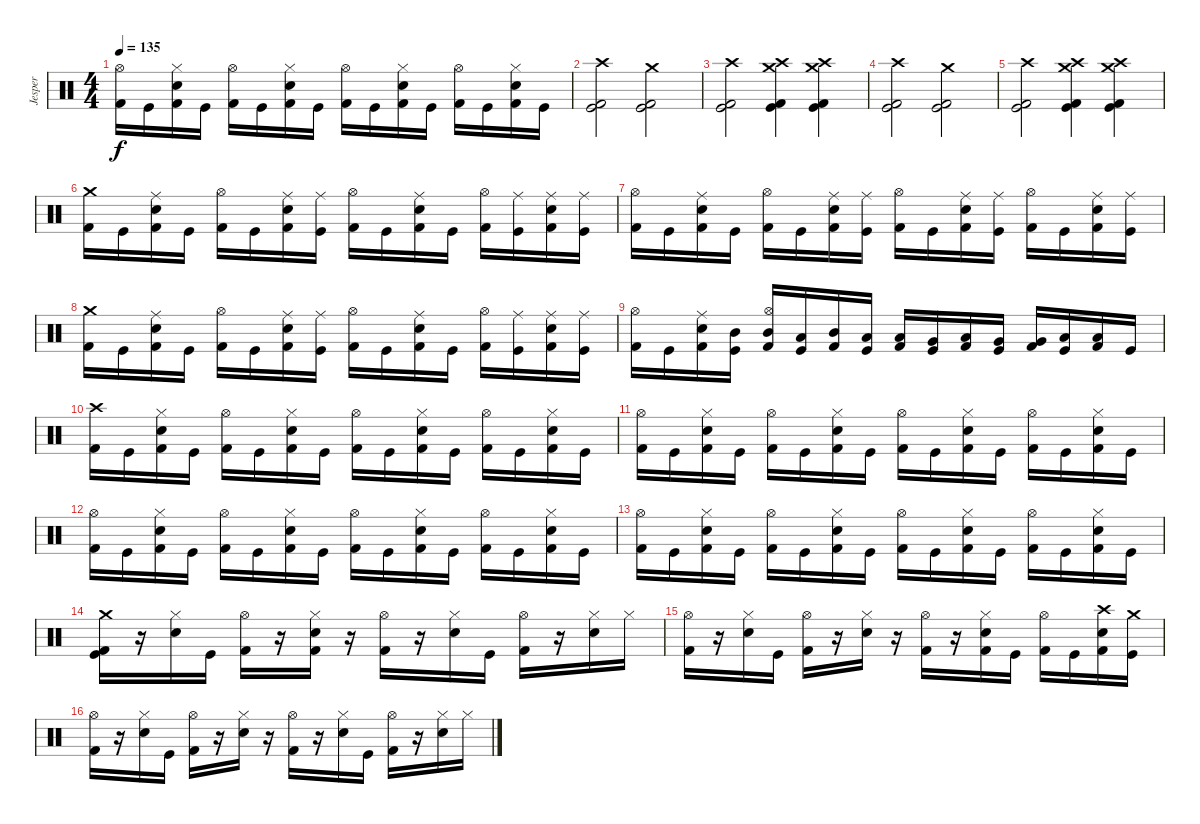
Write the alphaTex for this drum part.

\track ("Jesper" "Jesper") {instrument percussion}
\staff {score}
\articulation defaults
\ts (4 4)
\tempo 135
\clef neutral
\ks c
("Kick (hit) 2" "Hi-Hat (open)").16{dy f} "Kick (hit)".16 ("Kick (hit) 2" "Snare (hit) 2" "Hi-Hat (closed)").16 "Kick (hit)".16 ("Kick (hit) 2" "Hi-Hat (open)").16 "Kick (hit)".16 ("Kick (hit) 2" "Snare (hit) 2" "Hi-Hat (closed)").16 "Kick (hit)".16 ("Kick (hit) 2" "Hi-Hat (open)").16 "Kick (hit)".16 ("Kick (hit) 2" "Snare (hit) 2" "Hi-Hat (closed)").16 "Kick (hit)".16 ("Kick (hit) 2" "Hi-Hat (open)").16 "Kick (hit)".16 ("Kick (hit) 2" "Snare (hit) 2" "Hi-Hat (closed)").16 "Kick (hit)".16 |
("Kick (hit) 2" "Kick (hit)" "Crash high (hit)").2 ("Kick (hit) 2" "Kick (hit)" "Crash medium (hit)").2 |
("Kick (hit) 2" "Kick (hit)" "Crash high (hit)").2 ("Kick (hit) 2" "Kick (hit)" "Crash medium (hit)" "Crash high (hit)").4 ("Kick (hit) 2" "Kick (hit)" "Crash medium (hit)" "Crash high (hit)").4 |
("Kick (hit) 2" "Kick (hit)" "Crash high (hit)").2 ("Kick (hit) 2" "Kick (hit)" "Crash medium (hit)").2 |
("Kick (hit) 2" "Kick (hit)" "Crash high (hit)").2 ("Kick (hit) 2" "Kick (hit)" "Crash medium (hit)" "Crash high (hit)").4 ("Kick (hit) 2" "Kick (hit)" "Crash medium (hit)" "Crash high (hit)").4 |
("Kick (hit) 2" "Crash medium (hit)").16 "Kick (hit)".16 ("Kick (hit) 2" "Snare (hit) 2" "Ride (middle)").16 "Kick (hit)".16 ("Kick (hit) 2" "Hi-Hat (open)").16 "Kick (hit)".16 ("Kick (hit) 2" "Snare (hit) 2" "Ride (middle)").16 ("Kick (hit)" "Ride (middle)").16 ("Kick (hit) 2" "Hi-Hat (open)").16 "Kick (hit)".16 ("Kick (hit) 2" "Snare (hit) 2" "Ride (middle)").16 "Kick (hit)".16 ("Kick (hit) 2" "Hi-Hat (open)").16 ("Kick (hit)" "Ride (middle)").16 ("Kick (hit) 2" "Snare (hit) 2" "Ride (middle)").16 ("Kick (hit)" "Ride (middle)").16 |
("Kick (hit) 2" "Hi-Hat (open)").16 "Kick (hit)".16 ("Kick (hit) 2" "Snare (hit) 2" "Ride (middle)").16 "Kick (hit)".16 ("Kick (hit) 2" "Hi-Hat (open)").16 "Kick (hit)".16 ("Kick (hit) 2" "Snare (hit) 2" "Ride (middle)").16 ("Kick (hit)" "Ride (middle)").16 ("Kick (hit) 2" "Hi-Hat (open)").16 "Kick (hit)".16 ("Kick (hit) 2" "Snare (hit) 2" "Ride (middle)").16 ("Kick (hit)" "Ride (middle)").16 ("Kick (hit) 2" "Hi-Hat (open)").16 "Kick (hit)".16 ("Kick (hit) 2" "Snare (hit) 2" "Ride (middle)").16 ("Kick (hit)" "Ride (middle)").16 |
("Kick (hit) 2" "Crash medium (hit)").16 "Kick (hit)".16 ("Kick (hit) 2" "Snare (hit) 2" "Ride (middle)").16 "Kick (hit)".16 ("Kick (hit) 2" "Hi-Hat (open)").16 "Kick (hit)".16 ("Kick (hit) 2" "Snare (hit) 2" "Ride (middle)").16 ("Kick (hit)" "Ride (middle)").16 ("Kick (hit) 2" "Hi-Hat (open)").16 "Kick (hit)".16 ("Kick (hit) 2" "Snare (hit) 2" "Ride (middle)").16 "Kick (hit)".16 ("Kick (hit) 2" "Hi-Hat (open)").16 ("Kick (hit)" "Ride (middle)").16 ("Kick (hit) 2" "Snare (hit) 2" "Ride (middle)").16 ("Kick (hit)" "Ride (middle)").16 |
("Kick (hit) 2" "Hi-Hat (open)").16 "Kick (hit)".16 ("Kick (hit) 2" "Snare (hit) 2" "Ride (middle)").16 ("Kick (hit)" "Mid Tom (hit)").16 ("Kick (hit) 2" "Mid Tom (hit)" "Hi-Hat (open)").16 ("Kick (hit)" "Low Tom (hit)").16 ("Kick (hit) 2" "Mid Tom (hit)").16 ("Kick (hit)" "Low Tom (hit)").16 ("Kick (hit) 2" "Low Tom (hit)").16 ("Kick (hit)" "Very Low Tom (hit)").16 ("Kick (hit) 2" "Low Tom (hit)").16 ("Kick (hit)" "Very Low Tom (hit)").16 ("Kick (hit) 2" "Very Low Tom (hit)").16 ("Kick (hit)" "Low Floor Tom (hit)").16 ("Kick (hit) 2" "Low Floor Tom (hit)").16 "Kick (hit)".16 |
("Kick (hit) 2" "Crash high (hit)").16 "Kick (hit)".16 ("Kick (hit) 2" "Snare (hit) 2" "Hi-Hat (closed)").16 "Kick (hit)".16 ("Kick (hit) 2" "Hi-Hat (open)").16 "Kick (hit)".16 ("Kick (hit) 2" "Snare (hit) 2" "Hi-Hat (closed)").16 "Kick (hit)".16 ("Kick (hit) 2" "Hi-Hat (open)").16 "Kick (hit)".16 ("Kick (hit) 2" "Snare (hit) 2" "Hi-Hat (closed)").16 "Kick (hit)".16 ("Kick (hit) 2" "Hi-Hat (open)").16 "Kick (hit)".16 ("Kick (hit) 2" "Snare (hit) 2" "Hi-Hat (closed)").16 "Kick (hit)".16 |
("Kick (hit) 2" "Hi-Hat (open)").16 "Kick (hit)".16 ("Kick (hit) 2" "Snare (hit) 2" "Hi-Hat (closed)").16 "Kick (hit)".16 ("Kick (hit) 2" "Hi-Hat (open)").16 "Kick (hit)".16 ("Kick (hit) 2" "Snare (hit) 2" "Hi-Hat (closed)").16 "Kick (hit)".16 ("Kick (hit) 2" "Hi-Hat (open)").16 "Kick (hit)".16 ("Kick (hit) 2" "Snare (hit) 2" "Hi-Hat (closed)").16 "Kick (hit)".16 ("Kick (hit) 2" "Hi-Hat (open)").16 "Kick (hit)".16 ("Kick (hit) 2" "Snare (hit) 2" "Hi-Hat (closed)").16 "Kick (hit)".16 |
("Kick (hit) 2" "Hi-Hat (open)").16 "Kick (hit)".16 ("Kick (hit) 2" "Snare (hit) 2" "Hi-Hat (closed)").16 "Kick (hit)".16 ("Kick (hit) 2" "Hi-Hat (open)").16 "Kick (hit)".16 ("Kick (hit) 2" "Snare (hit) 2" "Hi-Hat (closed)").16 "Kick (hit)".16 ("Kick (hit) 2" "Hi-Hat (open)").16 "Kick (hit)".16 ("Kick (hit) 2" "Snare (hit) 2" "Hi-Hat (closed)").16 "Kick (hit)".16 ("Kick (hit) 2" "Hi-Hat (open)").16 "Kick (hit)".16 ("Kick (hit) 2" "Snare (hit) 2" "Hi-Hat (closed)").16 "Kick (hit)".16 |
("Kick (hit) 2" "Hi-Hat (open)").16 "Kick (hit)".16 ("Kick (hit) 2" "Snare (hit) 2" "Hi-Hat (closed)").16 "Kick (hit)".16 ("Kick (hit) 2" "Hi-Hat (open)").16 "Kick (hit)".16 ("Kick (hit) 2" "Snare (hit) 2" "Hi-Hat (closed)").16 "Kick (hit)".16 ("Kick (hit) 2" "Hi-Hat (open)").16 "Kick (hit)".16 ("Kick (hit) 2" "Snare (hit) 2" "Hi-Hat (closed)").16 "Kick (hit)".16 ("Kick (hit) 2" "Hi-Hat (open)").16 "Kick (hit)".16 ("Kick (hit) 2" "Snare (hit) 2" "Hi-Hat (closed)").16 "Kick (hit)".16 |
("Kick (hit) 2" "Kick (hit)" "Crash medium (hit)").16 r.16 ("Snare (hit) 2" "Hi-Hat (closed)").16 "Kick (hit)".16 ("Kick (hit) 2" "Hi-Hat (open)").16 r.16 ("Kick (hit) 2" "Snare (hit) 2" "Hi-Hat (closed)").16 r.16 ("Kick (hit) 2" "Hi-Hat (open)").16 r.16 ("Snare (hit) 2" "Hi-Hat (closed)").16 "Kick (hit)".16 ("Kick (hit) 2" "Hi-Hat (open)").16 r.16 ("Snare (hit) 2" "Hi-Hat (closed)").16 "Hi-Hat (closed)".16 |
("Kick (hit) 2" "Hi-Hat (open)").16 r.16 ("Snare (hit) 2" "Hi-Hat (closed)").16 "Kick (hit)".16 ("Kick (hit) 2" "Hi-Hat (open)").16 r.16 ("Snare (hit) 2" "Hi-Hat (closed)").16 r.16 ("Kick (hit) 2" "Hi-Hat (open)").16 r.16 ("Kick (hit) 2" "Snare (hit) 2" "Hi-Hat (closed)").16 "Kick (hit)".16 ("Kick (hit) 2" "Hi-Hat (open)").16 "Kick (hit)".16 ("Kick (hit) 2" "Snare (hit) 2" "Crash high (hit)").16 ("Kick (hit)" "Crash medium (hit)").16 |
("Kick (hit) 2" "Hi-Hat (open)").16 r.16 ("Snare (hit) 2" "Hi-Hat (closed)").16 "Kick (hit)".16 ("Kick (hit) 2" "Hi-Hat (open)").16 r.16 ("Snare (hit) 2" "Hi-Hat (closed)").16 r.16 ("Kick (hit) 2" "Hi-Hat (open)").16 r.16 ("Snare (hit) 2" "Hi-Hat (closed)").16 "Kick (hit)".16 ("Kick (hit) 2" "Hi-Hat (open)").16 r.16 ("Snare (hit) 2" "Hi-Hat (closed)").16 "Hi-Hat (closed)".16
